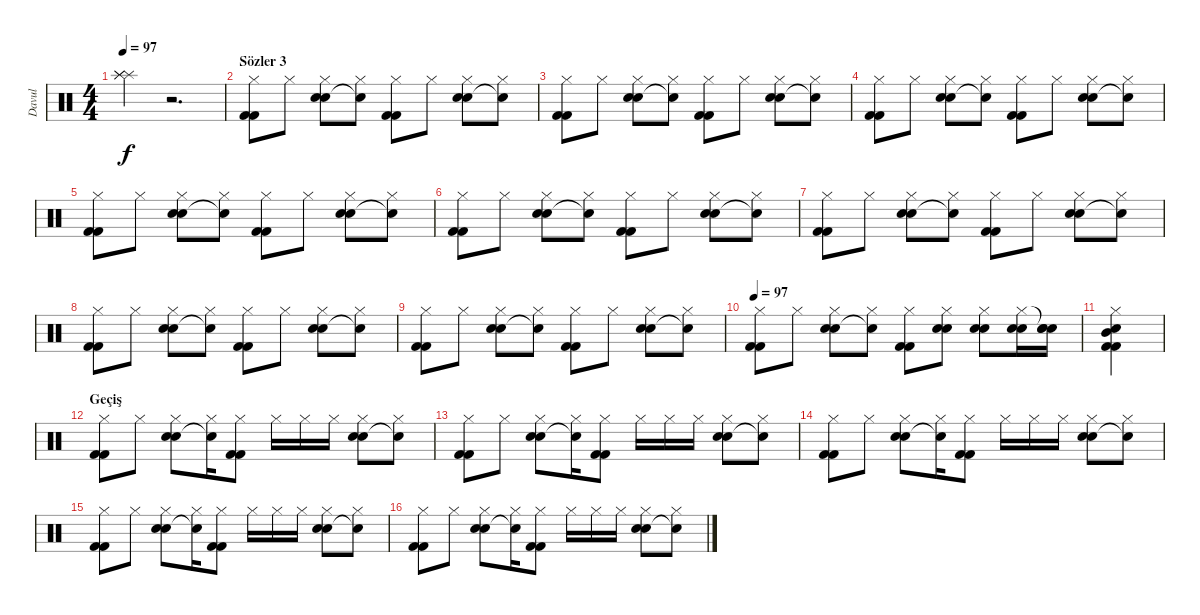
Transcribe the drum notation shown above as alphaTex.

\track ("Davul" "Davul") {instrument percussion}
\staff {score}
\articulation defaults
\ts (4 4)
\tempo 97
\clef neutral
\ks c
("Splash (hit)" "Splash (hit)" "Splash (hit)").4{dy f} r.2{d} |
\section ("" "Sözler 3")
("Hi-Hat (closed)" "Kick (hit) 2" "Kick (hit) 2").8 "Hi-Hat (closed)".8 ("Hi-Hat (closed)" "Snare (hit) 2" "Snare (hit) 2").8 ("Hi-Hat (closed)" "Snare (hit)"{t}).8 ("Hi-Hat (closed)" "Kick (hit) 2" "Kick (hit) 2").8 "Hi-Hat (closed)".8 ("Hi-Hat (closed)" "Snare (hit) 2" "Snare (hit) 2").8 ("Hi-Hat (closed)" "Snare (hit)"{t}).8 |
("Hi-Hat (closed)" "Kick (hit) 2" "Kick (hit) 2").8 "Hi-Hat (closed)".8 ("Hi-Hat (closed)" "Snare (hit) 2" "Snare (hit) 2").8 ("Hi-Hat (closed)" "Snare (hit)"{t}).8 ("Hi-Hat (closed)" "Kick (hit) 2" "Kick (hit) 2").8 "Hi-Hat (closed)".8 ("Hi-Hat (closed)" "Snare (hit) 2" "Snare (hit) 2").8 ("Hi-Hat (closed)" "Snare (hit)"{t}).8 |
("Hi-Hat (closed)" "Kick (hit) 2" "Kick (hit) 2").8 "Hi-Hat (closed)".8 ("Hi-Hat (closed)" "Snare (hit) 2" "Snare (hit) 2").8 ("Hi-Hat (closed)" "Snare (hit)"{t}).8 ("Hi-Hat (closed)" "Kick (hit) 2" "Kick (hit) 2").8 "Hi-Hat (closed)".8 ("Hi-Hat (closed)" "Snare (hit) 2" "Snare (hit) 2").8 ("Hi-Hat (closed)" "Snare (hit)"{t}).8 |
("Hi-Hat (closed)" "Kick (hit) 2" "Kick (hit) 2").8 "Hi-Hat (closed)".8 ("Hi-Hat (closed)" "Snare (hit) 2" "Snare (hit) 2").8 ("Hi-Hat (closed)" "Snare (hit)"{t}).8 ("Hi-Hat (closed)" "Kick (hit) 2" "Kick (hit) 2").8 "Hi-Hat (closed)".8 ("Hi-Hat (closed)" "Snare (hit) 2" "Snare (hit) 2").8 ("Hi-Hat (closed)" "Snare (hit)"{t}).8 |
("Hi-Hat (closed)" "Kick (hit) 2" "Kick (hit) 2").8 "Hi-Hat (closed)".8 ("Hi-Hat (closed)" "Snare (hit) 2" "Snare (hit) 2").8 ("Hi-Hat (closed)" "Snare (hit)"{t}).8 ("Hi-Hat (closed)" "Kick (hit) 2" "Kick (hit) 2").8 "Hi-Hat (closed)".8 ("Hi-Hat (closed)" "Snare (hit) 2" "Snare (hit) 2").8 ("Hi-Hat (closed)" "Snare (hit)"{t}).8 |
("Hi-Hat (closed)" "Kick (hit) 2" "Kick (hit) 2").8 "Hi-Hat (closed)".8 ("Hi-Hat (closed)" "Snare (hit) 2" "Snare (hit) 2").8 ("Hi-Hat (closed)" "Snare (hit)"{t}).8 ("Hi-Hat (closed)" "Kick (hit) 2" "Kick (hit) 2").8 "Hi-Hat (closed)".8 ("Hi-Hat (closed)" "Snare (hit) 2" "Snare (hit) 2").8 ("Hi-Hat (closed)" "Snare (hit)"{t}).8 |
("Hi-Hat (closed)" "Kick (hit) 2" "Kick (hit) 2").8 "Hi-Hat (closed)".8 ("Hi-Hat (closed)" "Snare (hit) 2" "Snare (hit) 2").8 ("Hi-Hat (closed)" "Snare (hit)"{t}).8 ("Hi-Hat (closed)" "Kick (hit) 2" "Kick (hit) 2").8 "Hi-Hat (closed)".8 ("Hi-Hat (closed)" "Snare (hit) 2" "Snare (hit) 2").8 ("Hi-Hat (closed)" "Snare (hit)"{t}).8 |
("Hi-Hat (closed)" "Kick (hit) 2" "Kick (hit) 2").8 "Hi-Hat (closed)".8 ("Hi-Hat (closed)" "Snare (hit) 2" "Snare (hit) 2").8 ("Hi-Hat (closed)" "Snare (hit)"{t}).8 ("Hi-Hat (closed)" "Kick (hit) 2" "Kick (hit) 2").8 "Hi-Hat (closed)".8 ("Hi-Hat (closed)" "Snare (hit) 2" "Snare (hit) 2").8 ("Hi-Hat (closed)" "Snare (hit)"{t}).8 |
\tempo 97
("Hi-Hat (closed)" "Kick (hit) 2" "Kick (hit) 2").8 "Hi-Hat (closed)".8 ("Hi-Hat (closed)" "Snare (hit) 2" "Snare (hit) 2").8 ("Hi-Hat (closed)" "Snare (hit)"{t}).8 ("Hi-Hat (closed)" "Kick (hit) 2" "Kick (hit) 2").8 ("Hi-Hat (closed)" "Snare (hit) 2" "Snare (hit) 2").8 ("Hi-Hat (closed)" "Snare (hit) 2" "Snare (hit) 2").8 ("Hi-Hat (closed)" "Snare (hit) 2" "Snare (hit) 2").16 ("Snare (hit)"{t} "Snare (hit) 2" "Snare (hit) 2").16 |
("Hi-Hat (closed)" "Mid Tom (hit)" "Snare (hit) 2" "Kick (hit) 2" "Kick (hit) 2").4 |
\section ("" "Geçiş")
("Hi-Hat (closed)" "Kick (hit) 2" "Kick (hit) 2").8 "Hi-Hat (closed)".8 ("Hi-Hat (closed)" "Snare (hit) 2" "Snare (hit) 2").8 ("Hi-Hat (closed)" "Snare (hit)"{t}).16 ("Hi-Hat (closed)" "Kick (hit) 2" "Kick (hit) 2").8 "Hi-Hat (closed)".16 "Hi-Hat (closed)".16 "Hi-Hat (closed)".16 ("Hi-Hat (closed)" "Snare (hit) 2" "Snare (hit) 2").8 ("Hi-Hat (closed)" "Snare (hit)"{t}).8 |
("Hi-Hat (closed)" "Kick (hit) 2" "Kick (hit) 2").8 "Hi-Hat (closed)".8 ("Hi-Hat (closed)" "Snare (hit) 2" "Snare (hit) 2").8 ("Hi-Hat (closed)" "Snare (hit)"{t}).16 ("Hi-Hat (closed)" "Kick (hit) 2" "Kick (hit) 2").8 "Hi-Hat (closed)".16 "Hi-Hat (closed)".16 "Hi-Hat (closed)".16 ("Hi-Hat (closed)" "Snare (hit) 2" "Snare (hit) 2").8 ("Hi-Hat (closed)" "Snare (hit)"{t}).8 |
("Hi-Hat (closed)" "Kick (hit) 2" "Kick (hit) 2").8 "Hi-Hat (closed)".8 ("Hi-Hat (closed)" "Snare (hit) 2" "Snare (hit) 2").8 ("Hi-Hat (closed)" "Snare (hit)"{t}).16 ("Hi-Hat (closed)" "Kick (hit) 2" "Kick (hit) 2").8 "Hi-Hat (closed)".16 "Hi-Hat (closed)".16 "Hi-Hat (closed)".16 ("Hi-Hat (closed)" "Snare (hit) 2" "Snare (hit) 2").8 ("Hi-Hat (closed)" "Snare (hit)"{t}).8 |
("Hi-Hat (closed)" "Kick (hit) 2" "Kick (hit) 2").8 "Hi-Hat (closed)".8 ("Hi-Hat (closed)" "Snare (hit) 2" "Snare (hit) 2").8 ("Hi-Hat (closed)" "Snare (hit)"{t}).16 ("Hi-Hat (closed)" "Kick (hit) 2" "Kick (hit) 2").8 "Hi-Hat (closed)".16 "Hi-Hat (closed)".16 "Hi-Hat (closed)".16 ("Hi-Hat (closed)" "Snare (hit) 2" "Snare (hit) 2").8 ("Hi-Hat (closed)" "Snare (hit)"{t}).8 |
("Hi-Hat (closed)" "Kick (hit) 2" "Kick (hit) 2").8 "Hi-Hat (closed)".8 ("Hi-Hat (closed)" "Snare (hit) 2" "Snare (hit) 2").8 ("Hi-Hat (closed)" "Snare (hit)"{t}).16 ("Hi-Hat (closed)" "Kick (hit) 2" "Kick (hit) 2").8 "Hi-Hat (closed)".16 "Hi-Hat (closed)".16 "Hi-Hat (closed)".16 ("Hi-Hat (closed)" "Snare (hit) 2" "Snare (hit) 2").8 ("Hi-Hat (closed)" "Snare (hit)"{t}).8
